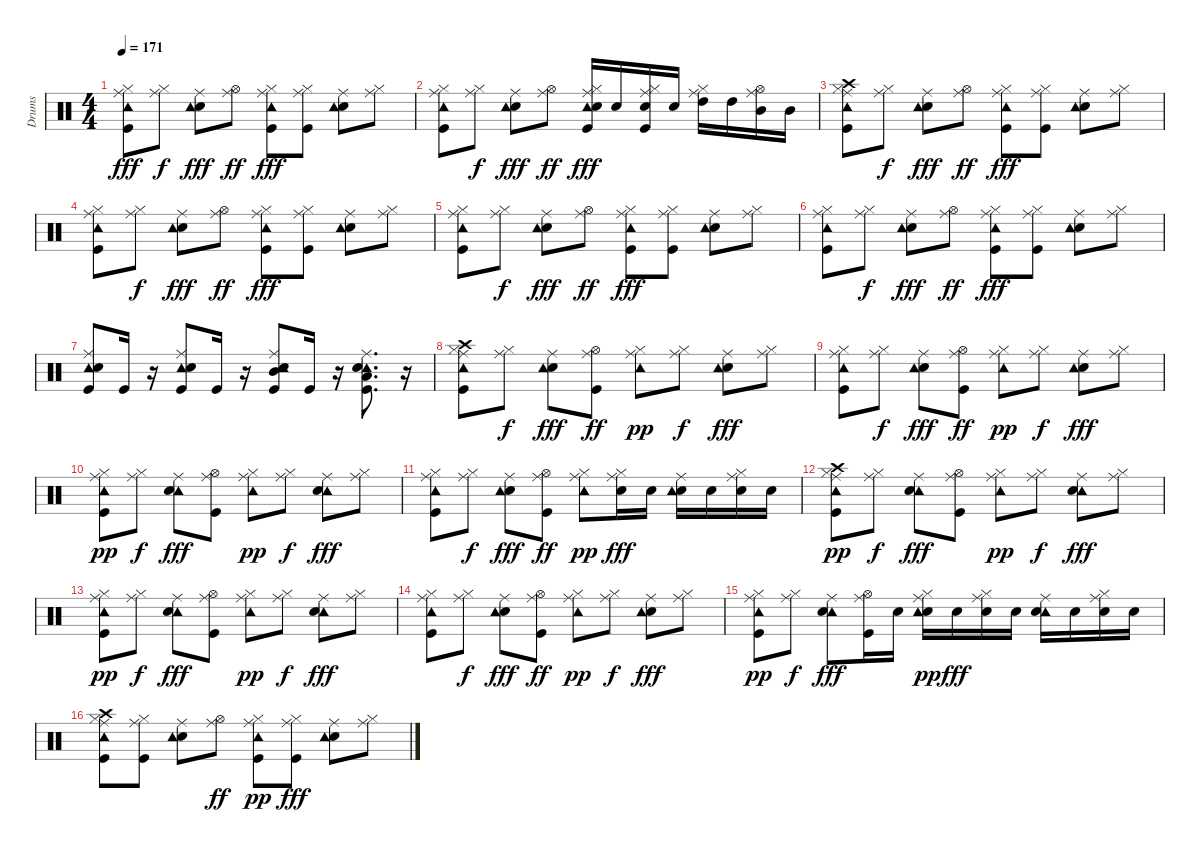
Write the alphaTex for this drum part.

\track ("Drums" "Drums") {instrument percussion}
\staff {score}
\articulation defaults
\ts (4 4)
\tempo 171
\clef neutral
\ks c
("Tambourine (hit)" "Kick (hit)" "Hi-Hat (closed)" "Ride (middle)").8{dy fff} ("Hi-Hat (closed)" "Ride (middle)").8{dy f} ("Snare (hit) 2" "Ride (middle)" "Tambourine (hit)").8{dy fff} ("Hi-Hat (open)" "Ride (middle)").8{dy ff} ("Tambourine (hit)" "Kick (hit)" "Hi-Hat (closed)" "Ride (middle)").8{dy fff} ("Kick (hit)" "Hi-Hat (closed)" "Ride (middle)").8 ("Snare (hit) 2" "Ride (middle)" "Tambourine (hit)").8 ("Hi-Hat (closed)" "Ride (middle)").8 |
("Tambourine (hit)" "Kick (hit)" "Hi-Hat (closed)" "Ride (middle)").8 ("Hi-Hat (closed)" "Ride (middle)").8{dy f} ("Snare (hit) 2" "Ride (middle)" "Tambourine (hit)").8{dy fff} ("Hi-Hat (open)" "Ride (middle)").8{dy ff} ("Tambourine (hit)" "Kick (hit)" "Snare (hit) 2" "Hi-Hat (closed)" "Ride (middle)").16{dy fff} "Snare (hit) 2".16 ("Kick (hit)" "Snare (hit) 2" "Hi-Hat (closed)" "Ride (middle)").16 "Snare (hit) 2".16 ("Hi-Hat (closed)" "High Tom (hit)" "Ride (middle)").16 "High Tom (hit)".16 ("Hi-Hat (open)" "Mid Tom (hit)" "Ride (middle)").16 "Mid Tom (hit)".16 |
("Tambourine (hit)" "Kick (hit)" "Hi-Hat (closed)" "Crash high (hit)" "Ride (middle)").8 ("Hi-Hat (closed)" "Ride (middle)").8{dy f} ("Snare (hit) 2" "Ride (middle)" "Tambourine (hit)").8{dy fff} ("Hi-Hat (open)" "Ride (middle)").8{dy ff} ("Tambourine (hit)" "Kick (hit)" "Hi-Hat (closed)" "Ride (middle)").8{dy fff} ("Kick (hit)" "Hi-Hat (closed)" "Ride (middle)").8 ("Snare (hit) 2" "Ride (middle)" "Tambourine (hit)").8 ("Hi-Hat (closed)" "Ride (middle)").8 |
("Tambourine (hit)" "Kick (hit)" "Hi-Hat (closed)" "Ride (middle)").8 ("Hi-Hat (closed)" "Ride (middle)").8{dy f} ("Snare (hit) 2" "Ride (middle)" "Tambourine (hit)").8{dy fff} ("Hi-Hat (open)" "Ride (middle)").8{dy ff} ("Tambourine (hit)" "Kick (hit)" "Hi-Hat (closed)" "Ride (middle)").8{dy fff} ("Kick (hit)" "Hi-Hat (closed)" "Ride (middle)").8 ("Snare (hit) 2" "Ride (middle)" "Tambourine (hit)").8 ("Hi-Hat (closed)" "Ride (middle)").8 |
("Tambourine (hit)" "Kick (hit)" "Hi-Hat (closed)" "Ride (middle)").8 ("Hi-Hat (closed)" "Ride (middle)").8{dy f} ("Snare (hit) 2" "Ride (middle)" "Tambourine (hit)").8{dy fff} ("Hi-Hat (open)" "Ride (middle)").8{dy ff} ("Tambourine (hit)" "Kick (hit)" "Hi-Hat (closed)" "Ride (middle)").8{dy fff} ("Kick (hit)" "Hi-Hat (closed)" "Ride (middle)").8 ("Snare (hit) 2" "Ride (middle)" "Tambourine (hit)").8 ("Hi-Hat (closed)" "Ride (middle)").8 |
("Tambourine (hit)" "Kick (hit)" "Hi-Hat (closed)" "Ride (middle)").8 ("Hi-Hat (closed)" "Ride (middle)").8{dy f} ("Snare (hit) 2" "Ride (middle)" "Tambourine (hit)").8{dy fff} ("Hi-Hat (open)" "Ride (middle)").8{dy ff} ("Tambourine (hit)" "Kick (hit)" "Hi-Hat (closed)" "Ride (middle)").8{dy fff} ("Kick (hit)" "Hi-Hat (closed)" "Ride (middle)").8 ("Snare (hit) 2" "Ride (middle)" "Tambourine (hit)").8 ("Hi-Hat (closed)" "Ride (middle)").8 |
("Tambourine (hit)" "Kick (hit)" "Snare (hit) 2" "Ride (middle)").8 "Kick (hit)".16 r.16 ("Tambourine (hit)" "Kick (hit)" "Snare (hit) 2" "Ride (middle)").8 "Kick (hit)".16 r.16 ("Tambourine (hit)" "Kick (hit)" "Snare (hit) 2" "Mid Tom (hit)" "Ride (middle)").8 "Kick (hit)".16 r.16 ("Tambourine (hit)" "Kick (hit)" "Snare (hit) 2" "Low Tom (hit)" "Ride (middle)").8{d} r.16 |
("Tambourine (hit)" "Kick (hit)" "Hi-Hat (closed)" "Crash high (hit)" "Ride (middle)").8 ("Hi-Hat (closed)" "Ride (middle)").8{dy f} ("Snare (hit) 2" "Ride (middle)" "Tambourine (hit)").8{dy fff} ("Kick (hit)" "Hi-Hat (open)" "Ride (middle)").8{dy ff} ("Tambourine (hit)" "Hi-Hat (closed)" "Ride (middle)").8{dy pp} ("Hi-Hat (closed)" "Ride (middle)").8{dy f} ("Snare (hit) 2" "Ride (middle)" "Tambourine (hit)").8{dy fff} ("Hi-Hat (closed)" "Ride (middle)").8 |
("Tambourine (hit)" "Kick (hit)" "Hi-Hat (closed)" "Ride (middle)").8 ("Hi-Hat (closed)" "Ride (middle)").8{dy f} ("Snare (hit) 2" "Ride (middle)" "Tambourine (hit)").8{dy fff} ("Kick (hit)" "Hi-Hat (open)" "Ride (middle)").8{dy ff} ("Tambourine (hit)" "Hi-Hat (closed)" "Ride (middle)").8{dy pp} ("Hi-Hat (closed)" "Ride (middle)").8{dy f} ("Snare (hit) 2" "Ride (middle)" "Tambourine (hit)").8{dy fff} ("Hi-Hat (closed)" "Ride (middle)").8 |
("Ride (middle)" "Hi-Hat (closed)" "Kick (hit)" "Tambourine (hit)").8{dy pp} ("Ride (middle)" "Hi-Hat (closed)").8{dy f} ("Tambourine (hit)" "Ride (middle)" "Snare (hit) 2").8{dy fff} ("Ride (middle)" "Hi-Hat (open)" "Kick (hit)").8 ("Ride (middle)" "Hi-Hat (closed)" "Tambourine (hit)").8{dy pp} ("Ride (middle)" "Hi-Hat (closed)").8{dy f} ("Tambourine (hit)" "Ride (middle)" "Snare (hit) 2").8{dy fff} ("Ride (middle)" "Hi-Hat (closed)").8 |
("Tambourine (hit)" "Kick (hit)" "Hi-Hat (closed)" "Ride (middle)").8 ("Hi-Hat (closed)" "Ride (middle)").8{dy f} ("Snare (hit) 2" "Ride (middle)" "Tambourine (hit)").8{dy fff} ("Kick (hit)" "Hi-Hat (open)" "Ride (middle)").8{dy ff} ("Tambourine (hit)" "Hi-Hat (closed)" "Ride (middle)").8{dy pp} ("Snare (hit) 2" "Hi-Hat (closed)" "Ride (middle)").16{dy fff} "Snare (hit) 2".16 ("Snare (hit) 2" "Ride (middle)" "Tambourine (hit)").16 "Snare (hit) 2".16 ("Snare (hit) 2" "Hi-Hat (closed)" "Ride (middle)").16 "Snare (hit) 2".16 |
("Ride (middle)" "Crash high (hit)" "Hi-Hat (closed)" "Kick (hit)" "Tambourine (hit)").8{dy pp} ("Ride (middle)" "Hi-Hat (closed)").8{dy f} ("Tambourine (hit)" "Ride (middle)" "Snare (hit) 2").8{dy fff} ("Ride (middle)" "Hi-Hat (open)" "Kick (hit)").8 ("Ride (middle)" "Hi-Hat (closed)" "Tambourine (hit)").8{dy pp} ("Ride (middle)" "Hi-Hat (closed)").8{dy f} ("Tambourine (hit)" "Ride (middle)" "Snare (hit) 2").8{dy fff} ("Ride (middle)" "Hi-Hat (closed)").8 |
("Ride (middle)" "Hi-Hat (closed)" "Kick (hit)" "Tambourine (hit)").8{dy pp} ("Ride (middle)" "Hi-Hat (closed)").8{dy f} ("Tambourine (hit)" "Ride (middle)" "Snare (hit) 2").8{dy fff} ("Ride (middle)" "Hi-Hat (open)" "Kick (hit)").8 ("Ride (middle)" "Hi-Hat (closed)" "Tambourine (hit)").8{dy pp} ("Ride (middle)" "Hi-Hat (closed)").8{dy f} ("Tambourine (hit)" "Ride (middle)" "Snare (hit) 2").8{dy fff} ("Ride (middle)" "Hi-Hat (closed)").8 |
("Tambourine (hit)" "Kick (hit)" "Hi-Hat (closed)" "Ride (middle)").8 ("Hi-Hat (closed)" "Ride (middle)").8{dy f} ("Snare (hit) 2" "Ride (middle)" "Tambourine (hit)").8{dy fff} ("Kick (hit)" "Hi-Hat (open)" "Ride (middle)").8{dy ff} ("Tambourine (hit)" "Hi-Hat (closed)" "Ride (middle)").8{dy pp} ("Hi-Hat (closed)" "Ride (middle)").8{dy f} ("Snare (hit) 2" "Ride (middle)" "Tambourine (hit)").8{dy fff} ("Hi-Hat (closed)" "Ride (middle)").8 |
("Ride (middle)" "Hi-Hat (closed)" "Kick (hit)" "Tambourine (hit)").8{dy pp} ("Ride (middle)" "Hi-Hat (closed)").8{dy f} ("Tambourine (hit)" "Ride (middle)" "Snare (hit) 2").8{dy fff} ("Ride (middle)" "Hi-Hat (open)" "Kick (hit)").16 "Snare (hit) 2".16 ("Snare (hit) 2" "Ride (middle)" "Hi-Hat (closed)" "Tambourine (hit)").16{dy pp} "Snare (hit) 2".16{dy fff} ("Ride (middle)" "Hi-Hat (closed)" "Snare (hit) 2").16 "Snare (hit) 2".16 ("Tambourine (hit)" "Ride (middle)" "Snare (hit) 2").16 "Snare (hit) 2".16 ("Ride (middle)" "Hi-Hat (closed)" "Snare (hit) 2").16 "Snare (hit) 2".16 |
("Tambourine (hit)" "Kick (hit)" "Hi-Hat (closed)" "Crash high (hit)" "Ride (middle)").8 ("Kick (hit)" "Hi-Hat (closed)" "Ride (middle)").8 ("Snare (hit) 2" "Ride (middle)" "Tambourine (hit)").8 ("Hi-Hat (open)" "Ride (middle)").8{dy ff} ("Kick (hit)" "Tambourine (hit)" "Hi-Hat (closed)" "Ride (middle)").8{dy pp} ("Kick (hit)" "Hi-Hat (closed)" "Ride (middle)").8{dy fff} ("Snare (hit) 2" "Ride (middle)" "Tambourine (hit)").8 ("Hi-Hat (closed)" "Ride (middle)").8
